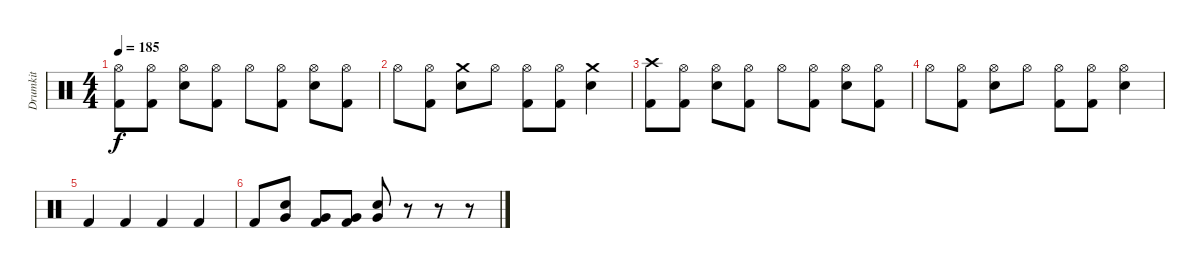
\track ("Drumkit" "Drumkit") {instrument percussion}
\staff {score}
\articulation defaults
\ts (4 4)
\tempo 185
\clef neutral
\ks c
("Hi-Hat (open)" "Kick (hit) 2").8{dy f} ("Hi-Hat (open)" "Kick (hit) 2").8 ("Hi-Hat (open)" "Snare (hit) 2").8 ("Hi-Hat (open)" "Kick (hit) 2").8 "Hi-Hat (open)".8 ("Hi-Hat (open)" "Kick (hit) 2").8 ("Hi-Hat (open)" "Snare (hit) 2").8 ("Hi-Hat (open)" "Kick (hit) 2").8 |
"Hi-Hat (open)".8 ("Hi-Hat (open)" "Kick (hit) 2").8 ("Crash medium (hit)" "Snare (hit) 2").8 "Hi-Hat (open)".8 ("Hi-Hat (open)" "Kick (hit) 2").8 ("Hi-Hat (open)" "Kick (hit) 2").8 ("Crash medium (hit)" "Snare (hit) 2").4 |
("Crash high (hit)" "Kick (hit) 2").8 ("Hi-Hat (open)" "Kick (hit) 2").8 ("Hi-Hat (open)" "Snare (hit) 2").8 ("Hi-Hat (open)" "Kick (hit) 2").8 "Hi-Hat (open)".8 ("Hi-Hat (open)" "Kick (hit) 2").8 ("Hi-Hat (open)" "Snare (hit) 2").8 ("Hi-Hat (open)" "Kick (hit) 2").8 |
"Hi-Hat (open)".8 ("Hi-Hat (open)" "Kick (hit) 2").8 ("Hi-Hat (open)" "Snare (hit) 2").8 "Hi-Hat (open)".8 ("Hi-Hat (open)" "Kick (hit) 2").8 ("Hi-Hat (open)" "Kick (hit) 2").8 ("Hi-Hat (open)" "Snare (hit) 2").4 |
"Kick (hit) 2".4 "Kick (hit) 2".4 "Kick (hit) 2".4 "Kick (hit) 2".4 |
"Kick (hit) 2".8 ("Snare (hit) 2" "Very Low Tom (hit)").8 ("Very Low Tom (hit)" "Kick (hit) 2").8 ("Very Low Tom (hit)" "Kick (hit) 2").8 ("Very Low Tom (hit)" "Snare (hit) 2").8 r.8 r.8 r.8
